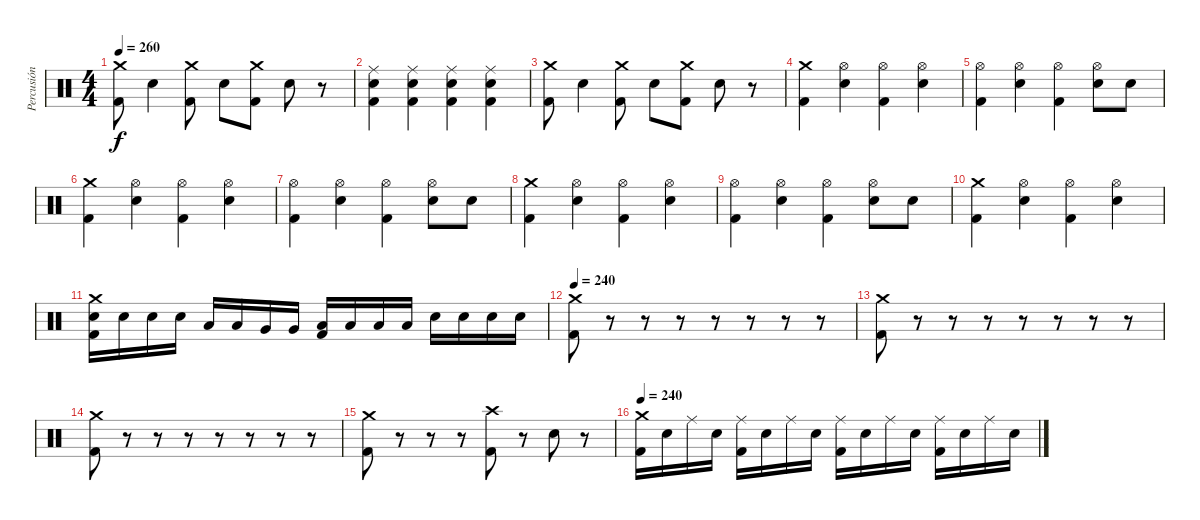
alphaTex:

\track ("Percusión" "Percusión") {instrument percussion}
\staff {score}
\articulation defaults
\ts (4 4)
\tempo 260
\clef neutral
\ks c
("Crash medium (hit)" "Kick (hit) 2").8{dy f} "Electric Snare (hit)".4 ("Crash medium (hit)" "Kick (hit) 2").8 "Electric Snare (hit)".8 ("Crash medium (hit)" "Kick (hit) 2").8 "Electric Snare (hit)".8 r.8 |
("Ride (middle)" "Electric Snare (hit)" "Kick (hit) 2").4 ("Ride (middle)" "Electric Snare (hit)" "Kick (hit) 2").4 ("Ride (middle)" "Electric Snare (hit)" "Kick (hit) 2").4 ("Ride (middle)" "Electric Snare (hit)" "Kick (hit) 2").4 |
("Crash medium (hit)" "Kick (hit) 2").8 "Electric Snare (hit)".4 ("Crash medium (hit)" "Kick (hit) 2").8 "Electric Snare (hit)".8 ("Crash medium (hit)" "Kick (hit) 2").8 "Electric Snare (hit)".8 r.8 |
("Crash medium (hit)" "Kick (hit) 2").4 ("Hi-Hat (open)" "Electric Snare (hit)").4 ("Hi-Hat (open)" "Kick (hit) 2").4 ("Hi-Hat (open)" "Electric Snare (hit)").4 |
("Hi-Hat (open)" "Kick (hit) 2").4 ("Hi-Hat (open)" "Electric Snare (hit)").4 ("Hi-Hat (open)" "Kick (hit) 2").4 ("Hi-Hat (open)" "Electric Snare (hit)").8 "Electric Snare (hit)".8 |
("Crash medium (hit)" "Kick (hit) 2").4 ("Hi-Hat (open)" "Electric Snare (hit)").4 ("Hi-Hat (open)" "Kick (hit) 2").4 ("Hi-Hat (open)" "Electric Snare (hit)").4 |
("Hi-Hat (open)" "Kick (hit) 2").4 ("Hi-Hat (open)" "Electric Snare (hit)").4 ("Hi-Hat (open)" "Kick (hit) 2").4 ("Hi-Hat (open)" "Electric Snare (hit)").8 "Electric Snare (hit)".8 |
("Crash medium (hit)" "Kick (hit) 2").4 ("Hi-Hat (open)" "Electric Snare (hit)").4 ("Hi-Hat (open)" "Kick (hit) 2").4 ("Hi-Hat (open)" "Electric Snare (hit)").4 |
("Hi-Hat (open)" "Kick (hit) 2").4 ("Hi-Hat (open)" "Electric Snare (hit)").4 ("Hi-Hat (open)" "Kick (hit) 2").4 ("Hi-Hat (open)" "Electric Snare (hit)").8 "Electric Snare (hit)".8 |
("Crash medium (hit)" "Kick (hit) 2").4 ("Hi-Hat (open)" "Electric Snare (hit)").4 ("Hi-Hat (open)" "Kick (hit) 2").4 ("Hi-Hat (open)" "Electric Snare (hit)").4 |
("Crash medium (hit)" "Electric Snare (hit)" "Kick (hit) 2").16 "Electric Snare (hit)".16 "Electric Snare (hit)".16 "Electric Snare (hit)".16 "Low Tom (hit)".16 "Low Tom (hit)".16 "Very Low Tom (hit)".16 "Very Low Tom (hit)".16 ("Low Tom (hit)" "Kick (hit) 2").16 "Low Tom (hit)".16 "Low Tom (hit)".16 "Low Tom (hit)".16 "Electric Snare (hit)".16 "Electric Snare (hit)".16 "Electric Snare (hit)".16 "Electric Snare (hit)".16 |
\tempo 240
("Crash medium (hit)" "Kick (hit) 2").8 r.8 r.8 r.8 r.8 r.8 r.8 r.8 |
("Crash medium (hit)" "Kick (hit) 2").8 r.8 r.8 r.8 r.8 r.8 r.8 r.8 |
("Crash medium (hit)" "Kick (hit) 2").8 r.8 r.8 r.8 r.8 r.8 r.8 r.8 |
("Crash medium (hit)" "Kick (hit) 2").8 r.8 r.8 r.8 ("Crash high (hit)" "Kick (hit) 2").8 r.8 "Electric Snare (hit)".8 r.8 |
\tempo 240
("Crash medium (hit)" "Kick (hit) 2").16 "Electric Snare (hit)".16 "Ride (middle)".16 "Electric Snare (hit)".16 ("Ride (middle)" "Kick (hit) 2").16 "Electric Snare (hit)".16 "Ride (middle)".16 "Electric Snare (hit)".16 ("Ride (middle)" "Kick (hit) 2").16 "Electric Snare (hit)".16 "Ride (middle)".16 "Electric Snare (hit)".16 ("Ride (middle)" "Kick (hit) 2").16 "Electric Snare (hit)".16 "Ride (middle)".16 "Electric Snare (hit)".16
